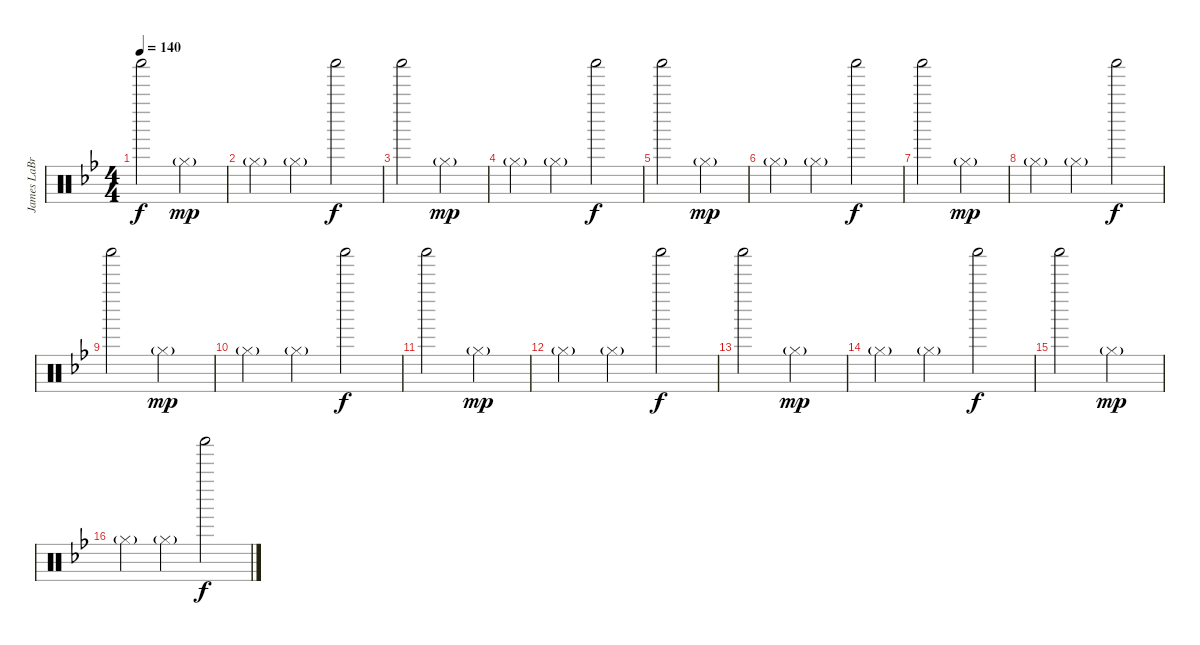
\track ("James LaBrie Percussion" "James LaBr") {instrument percussion}
\staff {score}
\articulation defaults
\ts (4 4)
\tempo 140
\clef neutral
\ks bb "Shaker (hit)".2{dy f} "Hi-Hat (closed)"{g}.2{dy mp}
|
"Hi-Hat (closed)"{g}.4 "Hi-Hat (closed)"{g}.4 "Shaker (hit)".2{dy f} |
"Shaker (hit)".2 "Hi-Hat (closed)"{g}.2{dy mp} |
"Hi-Hat (closed)"{g}.4 "Hi-Hat (closed)"{g}.4 "Shaker (hit)".2{dy f} |
"Shaker (hit)".2 "Hi-Hat (closed)"{g}.2{dy mp} |
"Hi-Hat (closed)"{g}.4 "Hi-Hat (closed)"{g}.4 "Shaker (hit)".2{dy f} |
"Shaker (hit)".2 "Hi-Hat (closed)"{g}.2{dy mp} |
"Hi-Hat (closed)"{g}.4 "Hi-Hat (closed)"{g}.4 "Shaker (hit)".2{dy f} |
"Shaker (hit)".2 "Hi-Hat (closed)"{g}.2{dy mp} |
"Hi-Hat (closed)"{g}.4 "Hi-Hat (closed)"{g}.4 "Shaker (hit)".2{dy f} |
"Shaker (hit)".2 "Hi-Hat (closed)"{g}.2{dy mp} |
"Hi-Hat (closed)"{g}.4 "Hi-Hat (closed)"{g}.4 "Shaker (hit)".2{dy f} |
"Shaker (hit)".2 "Hi-Hat (closed)"{g}.2{dy mp} |
"Hi-Hat (closed)"{g}.4 "Hi-Hat (closed)"{g}.4 "Shaker (hit)".2{dy f} |
"Shaker (hit)".2 "Hi-Hat (closed)"{g}.2{dy mp} |
"Hi-Hat (closed)"{g}.4 "Hi-Hat (closed)"{g}.4 "Shaker (hit)".2{dy f}
